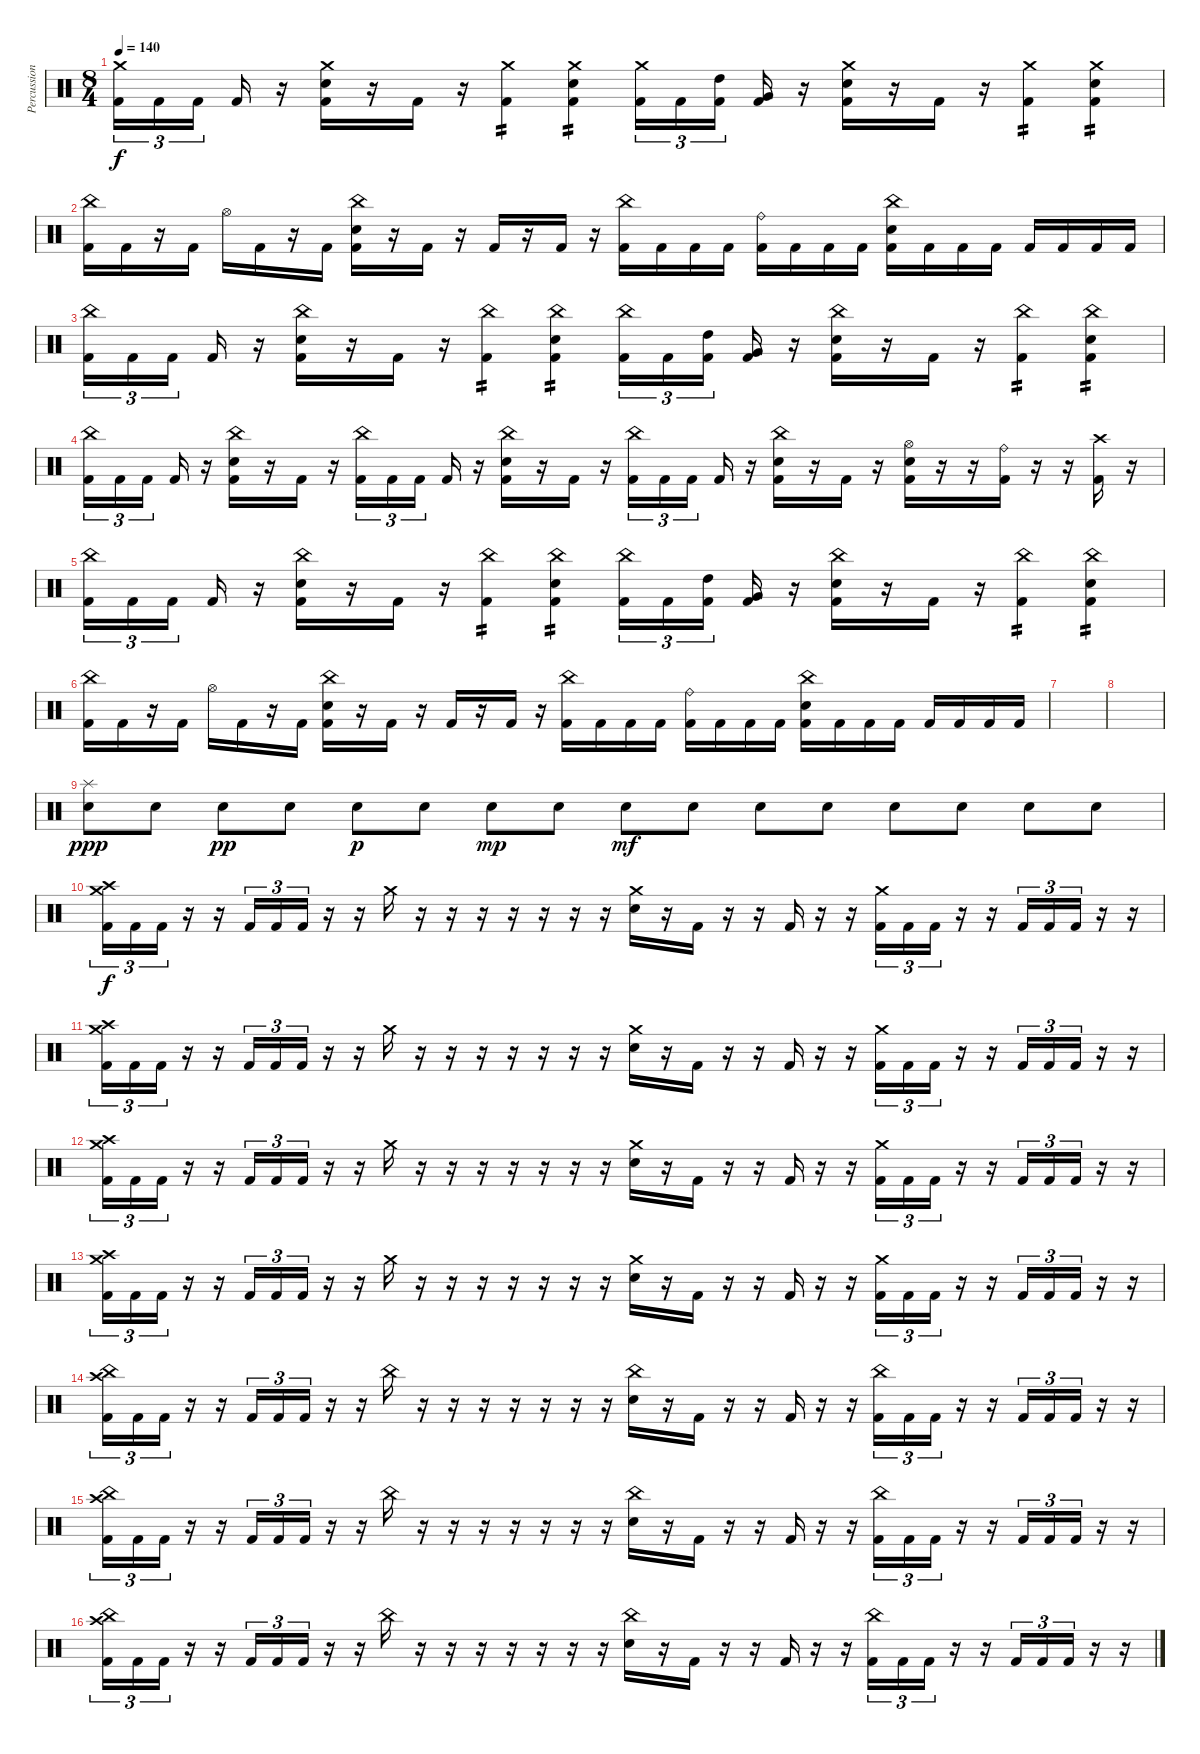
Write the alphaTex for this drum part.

\track ("Percussion" "Percussion") {solo instrument percussion}
\staff {score}
\articulation defaults
\ts (8 4)
\tempo 140
\clef neutral
\ks c
("Crash medium (hit)" "Kick (hit) 2").16{tu (3 2) dy f} "Kick (hit) 2".16{tu (3 2)} "Kick (hit) 2".16{tu (3 2) beam splitsecondary} "Kick (hit) 2".16 r.16 ("Crash medium (hit)" "Electric Snare (hit)" "Kick (hit) 2").16 r.16 "Kick (hit) 2".16 r.16 ("Crash medium (hit)" "Kick (hit) 2").4{tp 2} ("Crash medium (hit)" "Electric Snare (hit)" "Kick (hit) 2").4{tp 2} ("Crash medium (hit)" "Kick (hit) 2").16{tu (3 2)} "Kick (hit) 2".16{tu (3 2)} ("High Tom (hit)" "Kick (hit) 2").16{tu (3 2) beam splitsecondary} ("Very Low Tom (hit)" "Kick (hit) 2").16 r.16 ("Crash medium (hit)" "Electric Snare (hit)" "Kick (hit) 2").16 r.16 "Kick (hit) 2".16 r.16 ("Crash medium (hit)" "Kick (hit) 2").4{tp 2} ("Crash medium (hit)" "Electric Snare (hit)" "Kick (hit) 2").4{tp 2} |
("China (hit)" "Kick (hit) 2").16 "Kick (hit) 2".16 r.16 "Kick (hit) 2".16 "Hi-Hat (open)".16 "Kick (hit) 2".16 r.16 "Kick (hit) 2".16 ("China (hit)" "Electric Snare (hit)" "Kick (hit) 2").16 r.16 "Kick (hit) 2".16 r.16 "Kick (hit) 2".16 r.16 "Kick (hit) 2".16 r.16 ("China (hit)" "Kick (hit) 2").16 "Kick (hit) 2".16 "Kick (hit) 2".16 "Kick (hit) 2".16 ("Ride (bell)" "Kick (hit) 2").16 "Kick (hit) 2".16 "Kick (hit) 2".16 "Kick (hit) 2".16 ("China (hit)" "Electric Snare (hit)" "Kick (hit) 2").16 "Kick (hit) 2".16 "Kick (hit) 2".16 "Kick (hit) 2".16 "Kick (hit) 2".16 "Kick (hit) 2".16 "Kick (hit) 2".16 "Kick (hit) 2".16 |
("China (hit)" "Kick (hit) 2").16{tu (3 2)} "Kick (hit) 2".16{tu (3 2)} "Kick (hit) 2".16{tu (3 2) beam splitsecondary} "Kick (hit) 2".16 r.16 ("China (hit)" "Electric Snare (hit)" "Kick (hit) 2").16 r.16 "Kick (hit) 2".16 r.16 ("China (hit)" "Kick (hit) 2").4{tp 2} ("China (hit)" "Electric Snare (hit)" "Kick (hit) 2").4{tp 2} ("China (hit)" "Kick (hit) 2").16{tu (3 2)} "Kick (hit) 2".16{tu (3 2)} ("High Tom (hit)" "Kick (hit) 2").16{tu (3 2) beam splitsecondary} ("Very Low Tom (hit)" "Kick (hit) 2").16 r.16 ("China (hit)" "Electric Snare (hit)" "Kick (hit) 2").16 r.16 "Kick (hit) 2".16 r.16 ("China (hit)" "Kick (hit) 2").4{tp 2} ("China (hit)" "Electric Snare (hit)" "Kick (hit) 2").4{tp 2} |
("China (hit)" "Kick (hit) 2").16{tu (3 2)} "Kick (hit) 2".16{tu (3 2)} "Kick (hit) 2".16{tu (3 2) beam splitsecondary} "Kick (hit) 2".16 r.16 ("China (hit)" "Electric Snare (hit)" "Kick (hit) 2").16 r.16 "Kick (hit) 2".16 r.16 ("China (hit)" "Kick (hit) 2").16{tu (3 2)} "Kick (hit) 2".16{tu (3 2)} "Kick (hit) 2".16{tu (3 2) beam splitsecondary} "Kick (hit) 2".16 r.16 ("China (hit)" "Electric Snare (hit)" "Kick (hit) 2").16 r.16 "Kick (hit) 2".16 r.16 ("China (hit)" "Kick (hit) 2").16{tu (3 2)} "Kick (hit) 2".16{tu (3 2)} "Kick (hit) 2".16{tu (3 2) beam splitsecondary} "Kick (hit) 2".16 r.16 ("China (hit)" "Electric Snare (hit)" "Kick (hit) 2").16 r.16 "Kick (hit) 2".16 r.16 ("Hi-Hat (open)" "Electric Snare (hit)" "Kick (hit) 2").16 r.16 r.16 ("Ride (bell)" "Kick (hit) 2").16 r.16 r.16 ("Crash high (hit)" "Kick (hit) 2").16 r.16 |
("China (hit)" "Kick (hit) 2").16{tu (3 2)} "Kick (hit) 2".16{tu (3 2)} "Kick (hit) 2".16{tu (3 2) beam splitsecondary} "Kick (hit) 2".16 r.16 ("China (hit)" "Electric Snare (hit)" "Kick (hit) 2").16 r.16 "Kick (hit) 2".16 r.16 ("China (hit)" "Kick (hit) 2").4{tp 2} ("China (hit)" "Electric Snare (hit)" "Kick (hit) 2").4{tp 2} ("China (hit)" "Kick (hit) 2").16{tu (3 2)} "Kick (hit) 2".16{tu (3 2)} ("High Tom (hit)" "Kick (hit) 2").16{tu (3 2) beam splitsecondary} ("Very Low Tom (hit)" "Kick (hit) 2").16 r.16 ("China (hit)" "Electric Snare (hit)" "Kick (hit) 2").16 r.16 "Kick (hit) 2".16 r.16 ("China (hit)" "Kick (hit) 2").4{tp 2} ("China (hit)" "Electric Snare (hit)" "Kick (hit) 2").4{tp 2} |
("China (hit)" "Kick (hit) 2").16 "Kick (hit) 2".16 r.16 "Kick (hit) 2".16 "Hi-Hat (open)".16 "Kick (hit) 2".16 r.16 "Kick (hit) 2".16 ("China (hit)" "Electric Snare (hit)" "Kick (hit) 2").16 r.16 "Kick (hit) 2".16 r.16 "Kick (hit) 2".16 r.16 "Kick (hit) 2".16 r.16 ("China (hit)" "Kick (hit) 2").16 "Kick (hit) 2".16 "Kick (hit) 2".16 "Kick (hit) 2".16 ("Ride (bell)" "Kick (hit) 2").16 "Kick (hit) 2".16 "Kick (hit) 2".16 "Kick (hit) 2".16 ("China (hit)" "Electric Snare (hit)" "Kick (hit) 2").16 "Kick (hit) 2".16 "Kick (hit) 2".16 "Kick (hit) 2".16 "Kick (hit) 2".16 "Kick (hit) 2".16 "Kick (hit) 2".16 "Kick (hit) 2".16 |
|
|
("Splash (hit)" "Electric Snare (hit)").8{dy ppp} "Electric Snare (hit)".8 "Electric Snare (hit)".8{dy pp} "Electric Snare (hit)".8 "Electric Snare (hit)".8{dy p} "Electric Snare (hit)".8 "Electric Snare (hit)".8{dy mp} "Electric Snare (hit)".8 "Electric Snare (hit)".8{dy mf} "Electric Snare (hit)".8 "Electric Snare (hit)".8 "Electric Snare (hit)".8 "Electric Snare (hit)".8 "Electric Snare (hit)".8 "Electric Snare (hit)".8 "Electric Snare (hit)".8 |
("Crash medium (hit)" "Crash high (hit)" "Kick (hit) 2").16{tu (3 2) dy f} "Kick (hit) 2".16{tu (3 2)} "Kick (hit) 2".16{tu (3 2)} r.16 r.16 "Kick (hit) 2".16{tu (3 2)} "Kick (hit) 2".16{tu (3 2)} "Kick (hit) 2".16{tu (3 2)} r.16 r.16 "Crash medium (hit)".16 r.16 r.16 r.16 r.16 r.16 r.16 r.16 ("Crash medium (hit)" "Electric Snare (hit)").16 r.16 "Kick (hit) 2".16 r.16 r.16 "Kick (hit) 2".16 r.16 r.16 ("Crash medium (hit)" "Kick (hit) 2").16{tu (3 2)} "Kick (hit) 2".16{tu (3 2)} "Kick (hit) 2".16{tu (3 2)} r.16 r.16 "Kick (hit) 2".16{tu (3 2)} "Kick (hit) 2".16{tu (3 2)} "Kick (hit) 2".16{tu (3 2)} r.16 r.16 |
("Crash medium (hit)" "Crash high (hit)" "Kick (hit) 2").16{tu (3 2)} "Kick (hit) 2".16{tu (3 2)} "Kick (hit) 2".16{tu (3 2)} r.16 r.16 "Kick (hit) 2".16{tu (3 2)} "Kick (hit) 2".16{tu (3 2)} "Kick (hit) 2".16{tu (3 2)} r.16 r.16 "Crash medium (hit)".16 r.16 r.16 r.16 r.16 r.16 r.16 r.16 ("Crash medium (hit)" "Electric Snare (hit)").16 r.16 "Kick (hit) 2".16 r.16 r.16 "Kick (hit) 2".16 r.16 r.16 ("Crash medium (hit)" "Kick (hit) 2").16{tu (3 2)} "Kick (hit) 2".16{tu (3 2)} "Kick (hit) 2".16{tu (3 2)} r.16 r.16 "Kick (hit) 2".16{tu (3 2)} "Kick (hit) 2".16{tu (3 2)} "Kick (hit) 2".16{tu (3 2)} r.16 r.16 |
("Crash medium (hit)" "Crash high (hit)" "Kick (hit) 2").16{tu (3 2)} "Kick (hit) 2".16{tu (3 2)} "Kick (hit) 2".16{tu (3 2)} r.16 r.16 "Kick (hit) 2".16{tu (3 2)} "Kick (hit) 2".16{tu (3 2)} "Kick (hit) 2".16{tu (3 2)} r.16 r.16 "Crash medium (hit)".16 r.16 r.16 r.16 r.16 r.16 r.16 r.16 ("Crash medium (hit)" "Electric Snare (hit)").16 r.16 "Kick (hit) 2".16 r.16 r.16 "Kick (hit) 2".16 r.16 r.16 ("Crash medium (hit)" "Kick (hit) 2").16{tu (3 2)} "Kick (hit) 2".16{tu (3 2)} "Kick (hit) 2".16{tu (3 2)} r.16 r.16 "Kick (hit) 2".16{tu (3 2)} "Kick (hit) 2".16{tu (3 2)} "Kick (hit) 2".16{tu (3 2)} r.16 r.16 |
("Crash medium (hit)" "Crash high (hit)" "Kick (hit) 2").16{tu (3 2)} "Kick (hit) 2".16{tu (3 2)} "Kick (hit) 2".16{tu (3 2)} r.16 r.16 "Kick (hit) 2".16{tu (3 2)} "Kick (hit) 2".16{tu (3 2)} "Kick (hit) 2".16{tu (3 2)} r.16 r.16 "Crash medium (hit)".16 r.16 r.16 r.16 r.16 r.16 r.16 r.16 ("Crash medium (hit)" "Electric Snare (hit)").16 r.16 "Kick (hit) 2".16 r.16 r.16 "Kick (hit) 2".16 r.16 r.16 ("Crash medium (hit)" "Kick (hit) 2").16{tu (3 2)} "Kick (hit) 2".16{tu (3 2)} "Kick (hit) 2".16{tu (3 2)} r.16 r.16 "Kick (hit) 2".16{tu (3 2)} "Kick (hit) 2".16{tu (3 2)} "Kick (hit) 2".16{tu (3 2)} r.16 r.16 |
("China (hit)" "Crash high (hit)" "Kick (hit) 2").16{tu (3 2)} "Kick (hit) 2".16{tu (3 2)} "Kick (hit) 2".16{tu (3 2)} r.16 r.16 "Kick (hit) 2".16{tu (3 2)} "Kick (hit) 2".16{tu (3 2)} "Kick (hit) 2".16{tu (3 2)} r.16 r.16 "China (hit)".16 r.16 r.16 r.16 r.16 r.16 r.16 r.16 ("China (hit)" "Electric Snare (hit)").16 r.16 "Kick (hit) 2".16 r.16 r.16 "Kick (hit) 2".16 r.16 r.16 ("China (hit)" "Kick (hit) 2").16{tu (3 2)} "Kick (hit) 2".16{tu (3 2)} "Kick (hit) 2".16{tu (3 2)} r.16 r.16 "Kick (hit) 2".16{tu (3 2)} "Kick (hit) 2".16{tu (3 2)} "Kick (hit) 2".16{tu (3 2)} r.16 r.16 |
("China (hit)" "Crash high (hit)" "Kick (hit) 2").16{tu (3 2)} "Kick (hit) 2".16{tu (3 2)} "Kick (hit) 2".16{tu (3 2)} r.16 r.16 "Kick (hit) 2".16{tu (3 2)} "Kick (hit) 2".16{tu (3 2)} "Kick (hit) 2".16{tu (3 2)} r.16 r.16 "China (hit)".16 r.16 r.16 r.16 r.16 r.16 r.16 r.16 ("China (hit)" "Electric Snare (hit)").16 r.16 "Kick (hit) 2".16 r.16 r.16 "Kick (hit) 2".16 r.16 r.16 ("China (hit)" "Kick (hit) 2").16{tu (3 2)} "Kick (hit) 2".16{tu (3 2)} "Kick (hit) 2".16{tu (3 2)} r.16 r.16 "Kick (hit) 2".16{tu (3 2)} "Kick (hit) 2".16{tu (3 2)} "Kick (hit) 2".16{tu (3 2)} r.16 r.16 |
("China (hit)" "Crash high (hit)" "Kick (hit) 2").16{tu (3 2)} "Kick (hit) 2".16{tu (3 2)} "Kick (hit) 2".16{tu (3 2)} r.16 r.16 "Kick (hit) 2".16{tu (3 2)} "Kick (hit) 2".16{tu (3 2)} "Kick (hit) 2".16{tu (3 2)} r.16 r.16 "China (hit)".16 r.16 r.16 r.16 r.16 r.16 r.16 r.16 ("China (hit)" "Electric Snare (hit)").16 r.16 "Kick (hit) 2".16 r.16 r.16 "Kick (hit) 2".16 r.16 r.16 ("China (hit)" "Kick (hit) 2").16{tu (3 2)} "Kick (hit) 2".16{tu (3 2)} "Kick (hit) 2".16{tu (3 2)} r.16 r.16 "Kick (hit) 2".16{tu (3 2)} "Kick (hit) 2".16{tu (3 2)} "Kick (hit) 2".16{tu (3 2)} r.16 r.16
